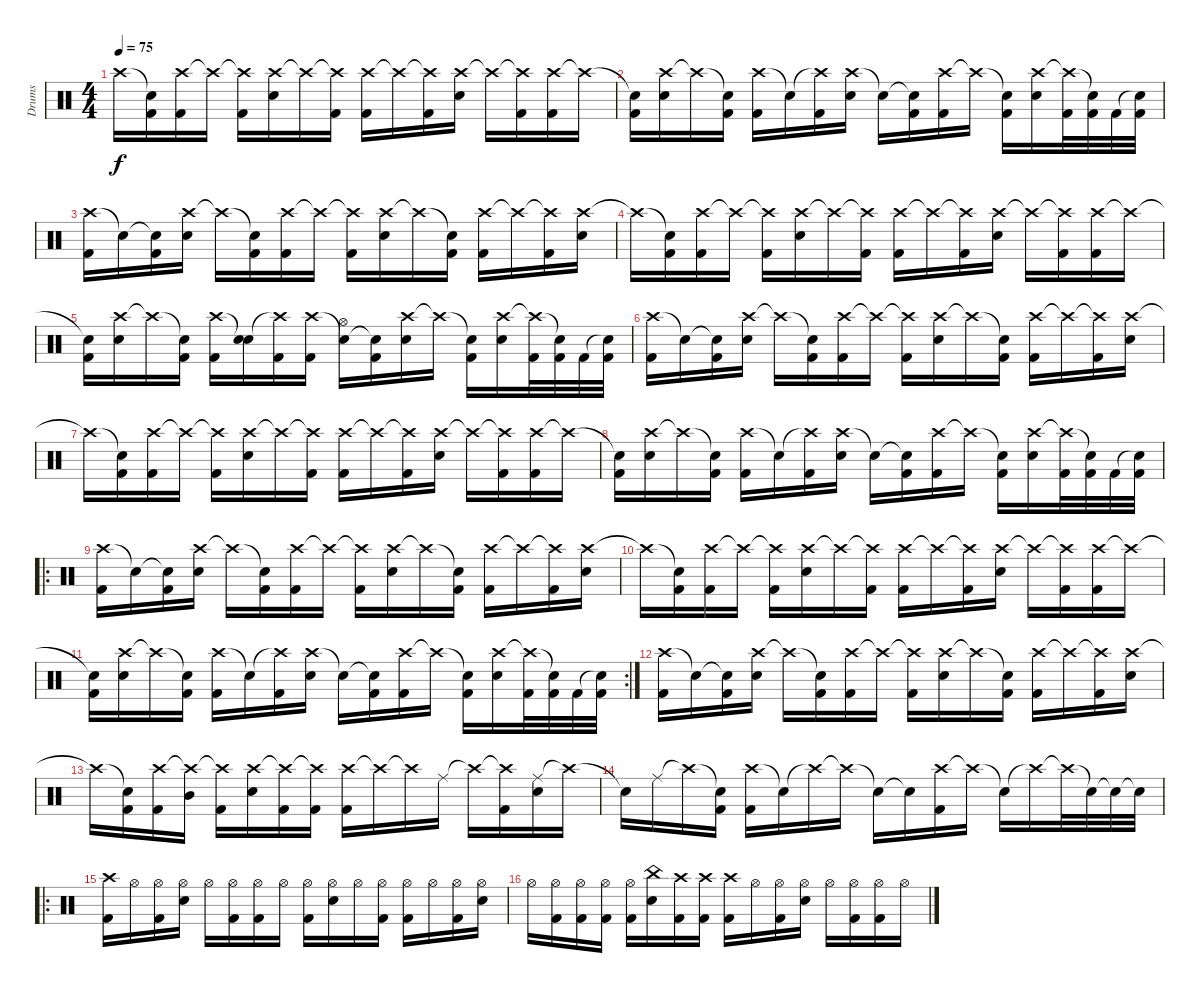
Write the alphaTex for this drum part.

\track ("Drums" "Drums") {instrument percussion}
\staff {score}
\articulation defaults
\ts (4 4)
\tempo 75
\clef neutral
\ks c "Crash high (hit)"{t}.16{dy f}
("Snare (hit)"{t} "Kick (hit) 2").16 ("Crash high (hit)" "Kick (hit) 2").16 "Crash high (hit)"{t}.16 ("Crash high (hit)"{t} "Kick (hit) 2").16 ("Crash high (hit)" "Electric Snare (hit)").16 "Crash high (hit)"{t}.16 ("Crash high (hit)"{t} "Kick (hit) 2").16 ("Crash high (hit)" "Kick (hit) 2").16 "Crash high (hit)"{t}.16 ("Crash high (hit)"{t} "Kick (hit) 2").16 ("Crash high (hit)" "Electric Snare (hit)").16 "Crash high (hit)"{t}.16 ("Crash high (hit)"{t} "Kick (hit) 2").16 ("Crash high (hit)" "Kick (hit) 2").16 "Crash high (hit)"{t}.16 |
("Snare (hit)"{t} "Kick (hit) 2").16 ("Crash high (hit)" "Electric Snare (hit)").16 "Crash high (hit)"{t}.16 ("Snare (hit)"{t} "Kick (hit) 2").16 ("Crash high (hit)" "Kick (hit) 2").16 "Snare (hit)"{t}.16 ("Crash high (hit)"{t} "Kick (hit) 2").16 ("Crash high (hit)" "Electric Snare (hit)").16 "Snare (hit)"{t}.16 ("Snare (hit)"{t} "Kick (hit) 2").16 ("Crash high (hit)" "Kick (hit) 2").16 "Crash high (hit)"{t}.16 ("Snare (hit)"{t} "Kick (hit) 2").16 ("Crash high (hit)" "Electric Snare (hit)").16 ("Crash high (hit)"{t} "Kick (hit) 2").32 ("Snare (hit)"{t} "Kick (hit) 2").32 "Kick (hit) 2".32 ("Snare (hit)"{t} "Kick (hit) 2").32 |
("Crash high (hit)" "Kick (hit) 2").16 "Snare (hit)"{t}.16 ("Snare (hit)"{t} "Kick (hit) 2").16 ("Crash high (hit)" "Electric Snare (hit)").16 "Crash high (hit)"{t}.16 ("Snare (hit)"{t} "Kick (hit) 2").16 ("Crash high (hit)" "Kick (hit) 2").16 "Crash high (hit)"{t}.16 ("Crash high (hit)"{t} "Kick (hit) 2").16 ("Crash high (hit)" "Electric Snare (hit)").16 "Crash high (hit)"{t}.16 ("Snare (hit)"{t} "Kick (hit) 2").16 ("Crash high (hit)" "Kick (hit) 2").16 "Crash high (hit)"{t}.16 ("Crash high (hit)"{t} "Kick (hit) 2").16 ("Crash high (hit)" "Electric Snare (hit)").16 |
"Crash high (hit)"{t}.16 ("Snare (hit)"{t} "Kick (hit) 2").16 ("Crash high (hit)" "Kick (hit) 2").16 "Crash high (hit)"{t}.16 ("Crash high (hit)"{t} "Kick (hit) 2").16 ("Crash high (hit)" "Electric Snare (hit)").16 "Crash high (hit)"{t}.16 ("Crash high (hit)"{t} "Kick (hit) 2").16 ("Crash high (hit)" "Kick (hit) 2").16 "Crash high (hit)"{t}.16 ("Crash high (hit)"{t} "Kick (hit) 2").16 ("Crash high (hit)" "Electric Snare (hit)").16 "Crash high (hit)"{t}.16 ("Crash high (hit)"{t} "Kick (hit) 2").16 ("Crash high (hit)" "Kick (hit) 2").16 "Crash high (hit)"{t}.16 |
("Snare (hit)"{t} "Kick (hit) 2").16 ("Crash high (hit)" "Electric Snare (hit)").16 "Crash high (hit)"{t}.16 ("Snare (hit)"{t} "Kick (hit) 2").16 ("Crash high (hit)" "Kick (hit) 2").16 ("Snare (hit)"{t} "Electric Snare (hit)").16 ("Crash high (hit)"{t} "Kick (hit) 2").16 ("Crash high (hit)" "Kick (hit) 2").16 ("Snare (hit)"{t} "Hi-Hat (open)").16 ("Snare (hit)"{t} "Kick (hit) 2").16 ("Crash high (hit)" "Electric Snare (hit)").16 "Crash high (hit)"{t}.16 ("Snare (hit)"{t} "Kick (hit) 2").16 ("Crash high (hit)" "Electric Snare (hit)").16 ("Crash high (hit)"{t} "Kick (hit) 2").32 ("Snare (hit)"{t} "Kick (hit) 2").32 "Kick (hit) 2".32 ("Snare (hit)"{t} "Kick (hit) 2").32 |
("Crash high (hit)" "Kick (hit) 2").16 "Snare (hit)"{t}.16 ("Snare (hit)"{t} "Kick (hit) 2").16 ("Crash high (hit)" "Electric Snare (hit)").16 "Crash high (hit)"{t}.16 ("Snare (hit)"{t} "Kick (hit) 2").16 ("Crash high (hit)" "Kick (hit) 2").16 "Crash high (hit)"{t}.16 ("Crash high (hit)"{t} "Kick (hit) 2").16 ("Crash high (hit)" "Electric Snare (hit)").16 "Crash high (hit)"{t}.16 ("Snare (hit)"{t} "Kick (hit) 2").16 ("Crash high (hit)" "Kick (hit) 2").16 "Crash high (hit)"{t}.16 ("Crash high (hit)"{t} "Kick (hit) 2").16 ("Crash high (hit)" "Electric Snare (hit)").16 |
"Crash high (hit)"{t}.16 ("Snare (hit)"{t} "Kick (hit) 2").16 ("Crash high (hit)" "Kick (hit) 2").16 "Crash high (hit)"{t}.16 ("Crash high (hit)"{t} "Kick (hit) 2").16 ("Crash high (hit)" "Electric Snare (hit)").16 "Crash high (hit)"{t}.16 ("Crash high (hit)"{t} "Kick (hit) 2").16 ("Crash high (hit)" "Kick (hit) 2").16 "Crash high (hit)"{t}.16 ("Crash high (hit)"{t} "Kick (hit) 2").16 ("Crash high (hit)" "Electric Snare (hit)").16 "Crash high (hit)"{t}.16 ("Crash high (hit)"{t} "Kick (hit) 2").16 ("Crash high (hit)" "Kick (hit) 2").16 "Crash high (hit)"{t}.16 |
("Snare (hit)"{t} "Kick (hit) 2").16 ("Crash high (hit)" "Electric Snare (hit)").16 "Crash high (hit)"{t}.16 ("Snare (hit)"{t} "Kick (hit) 2").16 ("Crash high (hit)" "Kick (hit) 2").16 "Snare (hit)"{t}.16 ("Crash high (hit)"{t} "Kick (hit) 2").16 ("Crash high (hit)" "Electric Snare (hit)").16 "Snare (hit)"{t}.16 ("Snare (hit)"{t} "Kick (hit) 2").16 ("Crash high (hit)" "Kick (hit) 2").16 "Crash high (hit)"{t}.16 ("Snare (hit)"{t} "Kick (hit) 2").16 ("Crash high (hit)" "Electric Snare (hit)").16 ("Crash high (hit)"{t} "Kick (hit) 2").32 ("Snare (hit)"{t} "Kick (hit) 2").32 "Kick (hit) 2".32 ("Snare (hit)"{t} "Kick (hit) 2").32 |
\ro
("Crash high (hit)" "Kick (hit) 2").16 "Snare (hit)"{t}.16 ("Snare (hit)"{t} "Kick (hit) 2").16 ("Crash high (hit)" "Electric Snare (hit)").16 "Crash high (hit)"{t}.16 ("Snare (hit)"{t} "Kick (hit) 2").16 ("Crash high (hit)" "Kick (hit) 2").16 "Crash high (hit)"{t}.16 ("Crash high (hit)"{t} "Kick (hit) 2").16 ("Crash high (hit)" "Electric Snare (hit)").16 "Crash high (hit)"{t}.16 ("Snare (hit)"{t} "Kick (hit) 2").16 ("Crash high (hit)" "Kick (hit) 2").16 "Crash high (hit)"{t}.16 ("Crash high (hit)"{t} "Kick (hit) 2").16 ("Crash high (hit)" "Electric Snare (hit)").16 |
"Crash high (hit)"{t}.16 ("Snare (hit)"{t} "Kick (hit) 2").16 ("Crash high (hit)" "Kick (hit) 2").16 "Crash high (hit)"{t}.16 ("Crash high (hit)"{t} "Kick (hit) 2").16 ("Crash high (hit)" "Electric Snare (hit)").16 "Crash high (hit)"{t}.16 ("Crash high (hit)"{t} "Kick (hit) 2").16 ("Crash high (hit)" "Kick (hit) 2").16 "Crash high (hit)"{t}.16 ("Crash high (hit)"{t} "Kick (hit) 2").16 ("Crash high (hit)" "Electric Snare (hit)").16 "Crash high (hit)"{t}.16 ("Crash high (hit)"{t} "Kick (hit) 2").16 ("Crash high (hit)" "Kick (hit) 2").16 "Crash high (hit)"{t}.16 |
\rc 2
("Snare (hit)"{t} "Kick (hit) 2").16 ("Crash high (hit)" "Electric Snare (hit)").16 "Crash high (hit)"{t}.16 ("Snare (hit)"{t} "Kick (hit) 2").16 ("Crash high (hit)" "Kick (hit) 2").16 "Snare (hit)"{t}.16 ("Crash high (hit)"{t} "Kick (hit) 2").16 ("Crash high (hit)" "Electric Snare (hit)").16 "Snare (hit)"{t}.16 ("Snare (hit)"{t} "Kick (hit) 2").16 ("Crash high (hit)" "Kick (hit) 2").16 "Crash high (hit)"{t}.16 ("Snare (hit)"{t} "Kick (hit) 2").16 ("Crash high (hit)" "Electric Snare (hit)").16 ("Crash high (hit)"{t} "Kick (hit) 2").32 ("Snare (hit)"{t} "Kick (hit) 2").32 "Kick (hit) 2".32 ("Snare (hit)"{t} "Kick (hit) 2").32 |
("Crash high (hit)" "Kick (hit) 2").16 "Snare (hit)"{t}.16 ("Snare (hit)"{t} "Kick (hit) 2").16 ("Crash high (hit)" "Electric Snare (hit)").16 "Crash high (hit)"{t}.16 ("Snare (hit)"{t} "Kick (hit) 2").16 ("Crash high (hit)" "Kick (hit) 2").16 "Crash high (hit)"{t}.16 ("Crash high (hit)"{t} "Kick (hit) 2").16 ("Crash high (hit)" "Electric Snare (hit)").16 "Crash high (hit)"{t}.16 ("Snare (hit)"{t} "Kick (hit) 2").16 ("Crash high (hit)" "Kick (hit) 2").16 "Crash high (hit)"{t}.16 ("Crash high (hit)"{t} "Kick (hit) 2").16 ("Crash high (hit)" "Electric Snare (hit)").16 |
"Crash high (hit)"{t}.16 ("Snare (hit)"{t} "Kick (hit) 2").16 ("Crash high (hit)" "Kick (hit) 2").16 ("Crash high (hit)"{t} "Mid Tom (hit)").16 ("Crash high (hit)"{t} "Kick (hit) 2").16 ("Crash high (hit)" "Electric Snare (hit)").16 ("Crash high (hit)"{t} "Kick (hit) 2").16 ("Crash high (hit)"{t} "Kick (hit) 2").16 ("Crash high (hit)" "Kick (hit) 2").16 "Crash high (hit)"{t}.16 "Crash high (hit)"{t}.16 "Ride (middle)".16 "Crash high (hit)"{t}.16 ("Crash high (hit)"{t} "Kick (hit) 2").16 ("Ride (middle)" "Electric Snare (hit)").16 "Crash high (hit)"{t}.16 |
"Snare (hit)"{t}.16 "Ride (middle)".16 "Crash high (hit)"{t}.16 ("Snare (hit)"{t} "Kick (hit) 2").16 ("Crash high (hit)" "Kick (hit) 2").16 "Snare (hit)"{t}.16 "Crash high (hit)"{t}.16 "Crash high (hit)"{t}.16 "Snare (hit)"{t}.16 "Snare (hit)"{t}.16 ("Crash high (hit)" "Kick (hit) 2").16 "Crash high (hit)"{t}.16 "Snare (hit)"{t}.16 "Crash high (hit)"{t}.16 "Crash high (hit)"{t}.32 "Snare (hit)"{t}.32 "Snare (hit)"{t}.32 "Snare (hit)"{t}.32 |
\ro
("Crash high (hit)" "Kick (hit) 2").16 "Hi-Hat (open)".16 ("Hi-Hat (open)" "Kick (hit) 2").16 ("Hi-Hat (open)" "Electric Snare (hit)").16 "Hi-Hat (open)".16 ("Hi-Hat (open)" "Kick (hit) 2").16 ("Hi-Hat (open)" "Kick (hit) 2").16 "Hi-Hat (open)".16 ("Hi-Hat (open)" "Kick (hit) 2").16 ("Hi-Hat (open)" "Electric Snare (hit)").16 "Hi-Hat (open)".16 ("Hi-Hat (open)" "Kick (hit) 2").16 ("Hi-Hat (open)" "Kick (hit) 2").16 "Hi-Hat (open)".16 ("Hi-Hat (open)" "Kick (hit) 2").16 ("Hi-Hat (open)" "Electric Snare (hit)").16 |
"Hi-Hat (open)".16 ("Hi-Hat (open)" "Kick (hit) 2").16 ("Hi-Hat (open)" "Kick (hit) 2").16 ("Hi-Hat (open)" "Kick (hit) 2").16 ("Hi-Hat (open)" "Kick (hit) 2").16 ("China (hit)" "Electric Snare (hit)").16 ("Crash high (hit)" "Kick (hit) 2").16 ("Crash high (hit)" "Kick (hit) 2").16 ("Crash high (hit)" "Kick (hit) 2").16 "Hi-Hat (open)".16 ("Hi-Hat (open)" "Kick (hit) 2").16 ("Hi-Hat (open)" "Electric Snare (hit)").16 "Hi-Hat (open)".16 ("Hi-Hat (open)" "Kick (hit) 2").16 ("Hi-Hat (open)" "Kick (hit) 2").16 "Hi-Hat (open)".16
